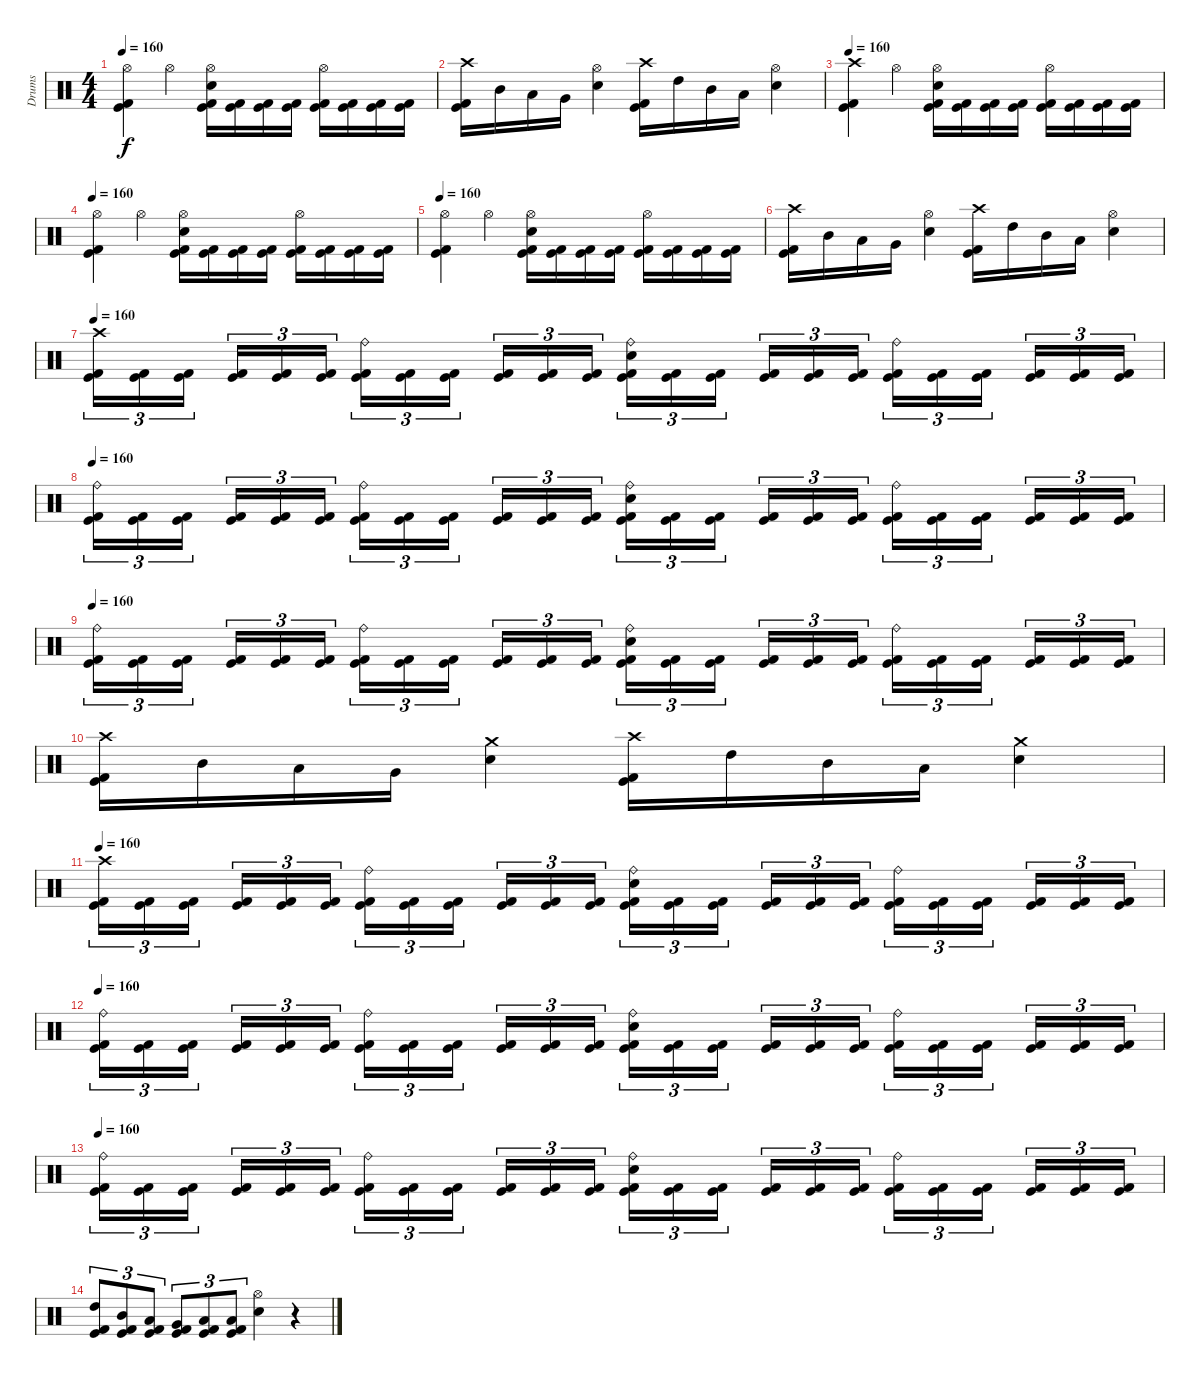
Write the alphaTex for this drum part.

\track ("Drums" "Drums") {instrument percussion}
\staff {score}
\articulation defaults
\ts (4 4)
\tempo 160
\clef neutral
\ks c
("Hi-Hat (open)" "Kick (hit)" "Kick (hit) 2").4{dy f} "Hi-Hat (open)".4 ("Hi-Hat (open)" "Electric Snare (hit)" "Kick (hit)" "Kick (hit) 2").16 ("Kick (hit)" "Kick (hit) 2").16 ("Kick (hit)" "Kick (hit) 2").16 ("Kick (hit)" "Kick (hit) 2").16 ("Hi-Hat (open)" "Kick (hit)" "Kick (hit) 2").16 ("Kick (hit)" "Kick (hit) 2").16 ("Kick (hit)" "Kick (hit) 2").16 ("Kick (hit)" "Kick (hit) 2").16 |
("Crash high (hit)" "Kick (hit)" "Kick (hit) 2").16 "Mid Tom (hit)".16 "Low Tom (hit)".16 "Very Low Tom (hit)".16 ("Hi-Hat (open)" "Electric Snare (hit)").4 ("Crash high (hit)" "Kick (hit)" "Kick (hit) 2").16 "High Tom (hit)".16 "Mid Tom (hit)".16 "Low Tom (hit)".16 ("Hi-Hat (open)" "Electric Snare (hit)").4 |
\tempo 160
("Crash high (hit)" "Kick (hit)" "Kick (hit) 2").4 "Hi-Hat (open)".4 ("Hi-Hat (open)" "Electric Snare (hit)" "Kick (hit)" "Kick (hit) 2").16 ("Kick (hit)" "Kick (hit) 2").16 ("Kick (hit)" "Kick (hit) 2").16 ("Kick (hit)" "Kick (hit) 2").16 ("Hi-Hat (open)" "Kick (hit)" "Kick (hit) 2").16 ("Kick (hit)" "Kick (hit) 2").16 ("Kick (hit)" "Kick (hit) 2").16 ("Kick (hit)" "Kick (hit) 2").16 |
\tempo 160
("Hi-Hat (open)" "Kick (hit)" "Kick (hit) 2").4 "Hi-Hat (open)".4 ("Hi-Hat (open)" "Electric Snare (hit)" "Kick (hit)" "Kick (hit) 2").16 ("Kick (hit)" "Kick (hit) 2").16 ("Kick (hit)" "Kick (hit) 2").16 ("Kick (hit)" "Kick (hit) 2").16 ("Hi-Hat (open)" "Kick (hit)" "Kick (hit) 2").16 ("Kick (hit)" "Kick (hit) 2").16 ("Kick (hit)" "Kick (hit) 2").16 ("Kick (hit)" "Kick (hit) 2").16 |
\tempo 160
("Hi-Hat (open)" "Kick (hit)" "Kick (hit) 2").4 "Hi-Hat (open)".4 ("Hi-Hat (open)" "Electric Snare (hit)" "Kick (hit)" "Kick (hit) 2").16 ("Kick (hit)" "Kick (hit) 2").16 ("Kick (hit)" "Kick (hit) 2").16 ("Kick (hit)" "Kick (hit) 2").16 ("Hi-Hat (open)" "Kick (hit)" "Kick (hit) 2").16 ("Kick (hit)" "Kick (hit) 2").16 ("Kick (hit)" "Kick (hit) 2").16 ("Kick (hit)" "Kick (hit) 2").16 |
("Crash high (hit)" "Kick (hit)" "Kick (hit) 2").16 "Mid Tom (hit)".16 "Low Tom (hit)".16 "Very Low Tom (hit)".16 ("Hi-Hat (open)" "Electric Snare (hit)").4 ("Crash high (hit)" "Kick (hit)" "Kick (hit) 2").16 "High Tom (hit)".16 "Mid Tom (hit)".16 "Low Tom (hit)".16 ("Hi-Hat (open)" "Electric Snare (hit)").4 |
\tempo 160
("Crash high (hit)" "Kick (hit)" "Kick (hit) 2").16{tu (3 2)} ("Kick (hit)" "Kick (hit) 2").16{tu (3 2)} ("Kick (hit)" "Kick (hit) 2").16{tu (3 2)} ("Kick (hit)" "Kick (hit) 2").16{tu (3 2)} ("Kick (hit)" "Kick (hit) 2").16{tu (3 2)} ("Kick (hit)" "Kick (hit) 2").16{tu (3 2)} ("Ride (bell)" "Kick (hit)" "Kick (hit) 2").16{tu (3 2)} ("Kick (hit)" "Kick (hit) 2").16{tu (3 2)} ("Kick (hit)" "Kick (hit) 2").16{tu (3 2)} ("Kick (hit)" "Kick (hit) 2").16{tu (3 2)} ("Kick (hit)" "Kick (hit) 2").16{tu (3 2)} ("Kick (hit)" "Kick (hit) 2").16{tu (3 2)} ("Ride (bell)" "Electric Snare (hit)" "Kick (hit)" "Kick (hit) 2").16{tu (3 2)} ("Kick (hit)" "Kick (hit) 2").16{tu (3 2)} ("Kick (hit)" "Kick (hit) 2").16{tu (3 2)} ("Kick (hit)" "Kick (hit) 2").16{tu (3 2)} ("Kick (hit)" "Kick (hit) 2").16{tu (3 2)} ("Kick (hit)" "Kick (hit) 2").16{tu (3 2)} ("Ride (bell)" "Kick (hit)" "Kick (hit) 2").16{tu (3 2)} ("Kick (hit)" "Kick (hit) 2").16{tu (3 2)} ("Kick (hit)" "Kick (hit) 2").16{tu (3 2)} ("Kick (hit)" "Kick (hit) 2").16{tu (3 2)} ("Kick (hit)" "Kick (hit) 2").16{tu (3 2)} ("Kick (hit)" "Kick (hit) 2").16{tu (3 2)} |
\tempo 160
("Ride (bell)" "Kick (hit)" "Kick (hit) 2").16{tu (3 2)} ("Kick (hit)" "Kick (hit) 2").16{tu (3 2)} ("Kick (hit)" "Kick (hit) 2").16{tu (3 2)} ("Kick (hit)" "Kick (hit) 2").16{tu (3 2)} ("Kick (hit)" "Kick (hit) 2").16{tu (3 2)} ("Kick (hit)" "Kick (hit) 2").16{tu (3 2)} ("Ride (bell)" "Kick (hit)" "Kick (hit) 2").16{tu (3 2)} ("Kick (hit)" "Kick (hit) 2").16{tu (3 2)} ("Kick (hit)" "Kick (hit) 2").16{tu (3 2)} ("Kick (hit)" "Kick (hit) 2").16{tu (3 2)} ("Kick (hit)" "Kick (hit) 2").16{tu (3 2)} ("Kick (hit)" "Kick (hit) 2").16{tu (3 2)} ("Ride (bell)" "Electric Snare (hit)" "Kick (hit)" "Kick (hit) 2").16{tu (3 2)} ("Kick (hit)" "Kick (hit) 2").16{tu (3 2)} ("Kick (hit)" "Kick (hit) 2").16{tu (3 2)} ("Kick (hit)" "Kick (hit) 2").16{tu (3 2)} ("Kick (hit)" "Kick (hit) 2").16{tu (3 2)} ("Kick (hit)" "Kick (hit) 2").16{tu (3 2)} ("Ride (bell)" "Kick (hit)" "Kick (hit) 2").16{tu (3 2)} ("Kick (hit)" "Kick (hit) 2").16{tu (3 2)} ("Kick (hit)" "Kick (hit) 2").16{tu (3 2)} ("Kick (hit)" "Kick (hit) 2").16{tu (3 2)} ("Kick (hit)" "Kick (hit) 2").16{tu (3 2)} ("Kick (hit)" "Kick (hit) 2").16{tu (3 2)} |
\tempo 160
("Ride (bell)" "Kick (hit)" "Kick (hit) 2").16{tu (3 2)} ("Kick (hit)" "Kick (hit) 2").16{tu (3 2)} ("Kick (hit)" "Kick (hit) 2").16{tu (3 2)} ("Kick (hit)" "Kick (hit) 2").16{tu (3 2)} ("Kick (hit)" "Kick (hit) 2").16{tu (3 2)} ("Kick (hit)" "Kick (hit) 2").16{tu (3 2)} ("Ride (bell)" "Kick (hit)" "Kick (hit) 2").16{tu (3 2)} ("Kick (hit)" "Kick (hit) 2").16{tu (3 2)} ("Kick (hit)" "Kick (hit) 2").16{tu (3 2)} ("Kick (hit)" "Kick (hit) 2").16{tu (3 2)} ("Kick (hit)" "Kick (hit) 2").16{tu (3 2)} ("Kick (hit)" "Kick (hit) 2").16{tu (3 2)} ("Ride (bell)" "Electric Snare (hit)" "Kick (hit)" "Kick (hit) 2").16{tu (3 2)} ("Kick (hit)" "Kick (hit) 2").16{tu (3 2)} ("Kick (hit)" "Kick (hit) 2").16{tu (3 2)} ("Kick (hit)" "Kick (hit) 2").16{tu (3 2)} ("Kick (hit)" "Kick (hit) 2").16{tu (3 2)} ("Kick (hit)" "Kick (hit) 2").16{tu (3 2)} ("Ride (bell)" "Kick (hit)" "Kick (hit) 2").16{tu (3 2)} ("Kick (hit)" "Kick (hit) 2").16{tu (3 2)} ("Kick (hit)" "Kick (hit) 2").16{tu (3 2)} ("Kick (hit)" "Kick (hit) 2").16{tu (3 2)} ("Kick (hit)" "Kick (hit) 2").16{tu (3 2)} ("Kick (hit)" "Kick (hit) 2").16{tu (3 2)} |
("Crash high (hit)" "Kick (hit)" "Kick (hit) 2").16 "Mid Tom (hit)".16 "Low Tom (hit)".16 "Very Low Tom (hit)".16 ("Crash medium (hit)" "Electric Snare (hit)").4 ("Crash high (hit)" "Kick (hit)" "Kick (hit) 2").16 "High Tom (hit)".16 "Mid Tom (hit)".16 "Low Tom (hit)".16 ("Crash medium (hit)" "Electric Snare (hit)").4 |
\tempo 160
("Crash high (hit)" "Kick (hit)" "Kick (hit) 2").16{tu (3 2)} ("Kick (hit)" "Kick (hit) 2").16{tu (3 2)} ("Kick (hit)" "Kick (hit) 2").16{tu (3 2)} ("Kick (hit)" "Kick (hit) 2").16{tu (3 2)} ("Kick (hit)" "Kick (hit) 2").16{tu (3 2)} ("Kick (hit)" "Kick (hit) 2").16{tu (3 2)} ("Ride (bell)" "Kick (hit)" "Kick (hit) 2").16{tu (3 2)} ("Kick (hit)" "Kick (hit) 2").16{tu (3 2)} ("Kick (hit)" "Kick (hit) 2").16{tu (3 2)} ("Kick (hit)" "Kick (hit) 2").16{tu (3 2)} ("Kick (hit)" "Kick (hit) 2").16{tu (3 2)} ("Kick (hit)" "Kick (hit) 2").16{tu (3 2)} ("Ride (bell)" "Electric Snare (hit)" "Kick (hit)" "Kick (hit) 2").16{tu (3 2)} ("Kick (hit)" "Kick (hit) 2").16{tu (3 2)} ("Kick (hit)" "Kick (hit) 2").16{tu (3 2)} ("Kick (hit)" "Kick (hit) 2").16{tu (3 2)} ("Kick (hit)" "Kick (hit) 2").16{tu (3 2)} ("Kick (hit)" "Kick (hit) 2").16{tu (3 2)} ("Ride (bell)" "Kick (hit)" "Kick (hit) 2").16{tu (3 2)} ("Kick (hit)" "Kick (hit) 2").16{tu (3 2)} ("Kick (hit)" "Kick (hit) 2").16{tu (3 2)} ("Kick (hit)" "Kick (hit) 2").16{tu (3 2)} ("Kick (hit)" "Kick (hit) 2").16{tu (3 2)} ("Kick (hit)" "Kick (hit) 2").16{tu (3 2)} |
\tempo 160
("Ride (bell)" "Kick (hit)" "Kick (hit) 2").16{tu (3 2)} ("Kick (hit)" "Kick (hit) 2").16{tu (3 2)} ("Kick (hit)" "Kick (hit) 2").16{tu (3 2)} ("Kick (hit)" "Kick (hit) 2").16{tu (3 2)} ("Kick (hit)" "Kick (hit) 2").16{tu (3 2)} ("Kick (hit)" "Kick (hit) 2").16{tu (3 2)} ("Ride (bell)" "Kick (hit)" "Kick (hit) 2").16{tu (3 2)} ("Kick (hit)" "Kick (hit) 2").16{tu (3 2)} ("Kick (hit)" "Kick (hit) 2").16{tu (3 2)} ("Kick (hit)" "Kick (hit) 2").16{tu (3 2)} ("Kick (hit)" "Kick (hit) 2").16{tu (3 2)} ("Kick (hit)" "Kick (hit) 2").16{tu (3 2)} ("Ride (bell)" "Electric Snare (hit)" "Kick (hit)" "Kick (hit) 2").16{tu (3 2)} ("Kick (hit)" "Kick (hit) 2").16{tu (3 2)} ("Kick (hit)" "Kick (hit) 2").16{tu (3 2)} ("Kick (hit)" "Kick (hit) 2").16{tu (3 2)} ("Kick (hit)" "Kick (hit) 2").16{tu (3 2)} ("Kick (hit)" "Kick (hit) 2").16{tu (3 2)} ("Ride (bell)" "Kick (hit)" "Kick (hit) 2").16{tu (3 2)} ("Kick (hit)" "Kick (hit) 2").16{tu (3 2)} ("Kick (hit)" "Kick (hit) 2").16{tu (3 2)} ("Kick (hit)" "Kick (hit) 2").16{tu (3 2)} ("Kick (hit)" "Kick (hit) 2").16{tu (3 2)} ("Kick (hit)" "Kick (hit) 2").16{tu (3 2)} |
\tempo 160
("Ride (bell)" "Kick (hit)" "Kick (hit) 2").16{tu (3 2)} ("Kick (hit)" "Kick (hit) 2").16{tu (3 2)} ("Kick (hit)" "Kick (hit) 2").16{tu (3 2)} ("Kick (hit)" "Kick (hit) 2").16{tu (3 2)} ("Kick (hit)" "Kick (hit) 2").16{tu (3 2)} ("Kick (hit)" "Kick (hit) 2").16{tu (3 2)} ("Ride (bell)" "Kick (hit)" "Kick (hit) 2").16{tu (3 2)} ("Kick (hit)" "Kick (hit) 2").16{tu (3 2)} ("Kick (hit)" "Kick (hit) 2").16{tu (3 2)} ("Kick (hit)" "Kick (hit) 2").16{tu (3 2)} ("Kick (hit)" "Kick (hit) 2").16{tu (3 2)} ("Kick (hit)" "Kick (hit) 2").16{tu (3 2)} ("Ride (bell)" "Electric Snare (hit)" "Kick (hit)" "Kick (hit) 2").16{tu (3 2)} ("Kick (hit)" "Kick (hit) 2").16{tu (3 2)} ("Kick (hit)" "Kick (hit) 2").16{tu (3 2)} ("Kick (hit)" "Kick (hit) 2").16{tu (3 2)} ("Kick (hit)" "Kick (hit) 2").16{tu (3 2)} ("Kick (hit)" "Kick (hit) 2").16{tu (3 2)} ("Ride (bell)" "Kick (hit)" "Kick (hit) 2").16{tu (3 2)} ("Kick (hit)" "Kick (hit) 2").16{tu (3 2)} ("Kick (hit)" "Kick (hit) 2").16{tu (3 2)} ("Kick (hit)" "Kick (hit) 2").16{tu (3 2)} ("Kick (hit)" "Kick (hit) 2").16{tu (3 2)} ("Kick (hit)" "Kick (hit) 2").16{tu (3 2)} |
("High Tom (hit)" "Kick (hit)" "Kick (hit) 2").8{tu (3 2)} ("Mid Tom (hit)" "Kick (hit)" "Kick (hit) 2").8{tu (3 2)} ("Low Tom (hit)" "Kick (hit)" "Kick (hit) 2").8{tu (3 2)} ("Very Low Tom (hit)" "Kick (hit)" "Kick (hit) 2").8{tu (3 2)} ("Low Floor Tom (hit)" "Kick (hit)" "Kick (hit) 2").8{tu (3 2)} ("Low Tom (hit)" "Kick (hit)" "Kick (hit) 2").8{tu (3 2)} ("Hi-Hat (open)" "Electric Snare (hit)").4 r.4
